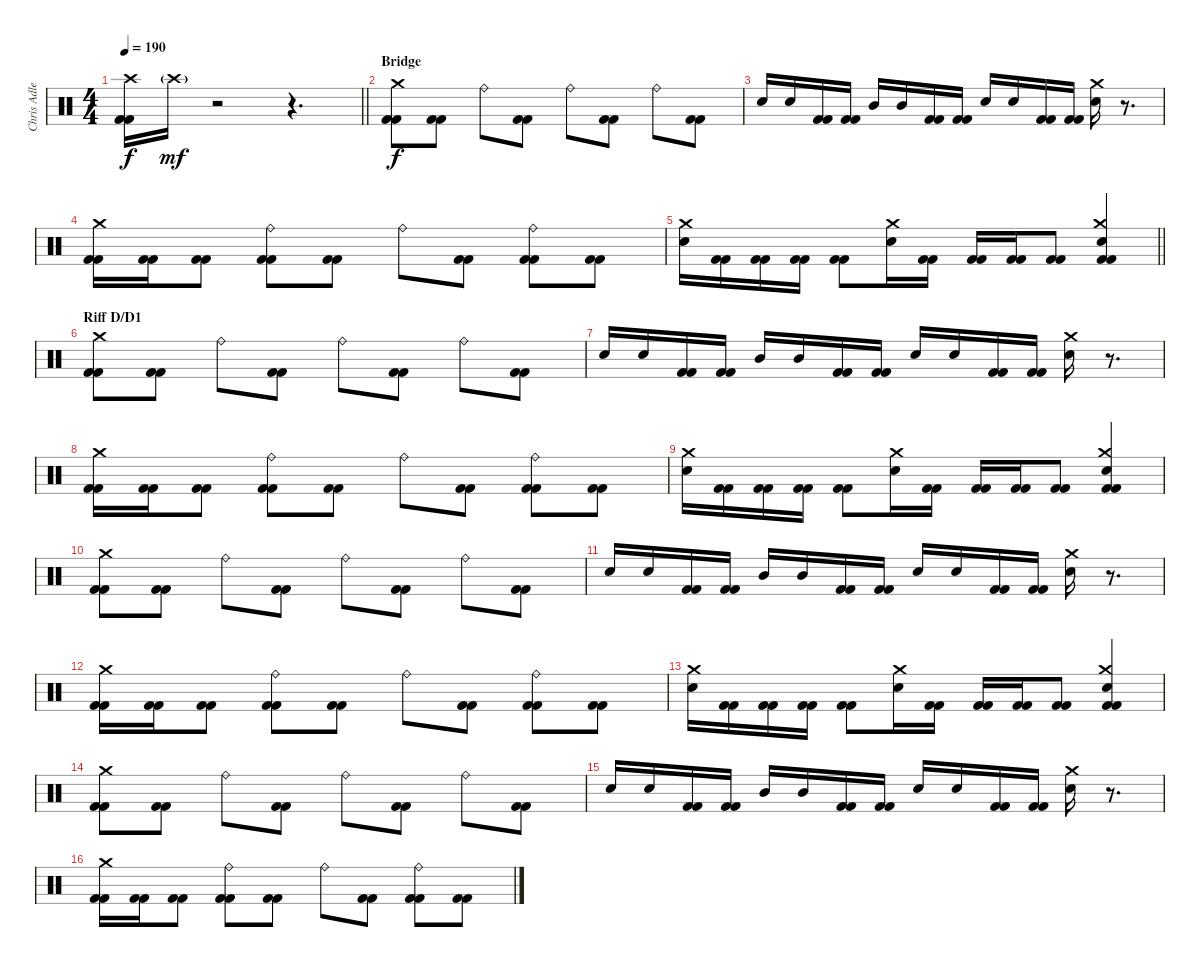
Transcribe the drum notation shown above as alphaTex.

\track ("Chris Adler" "Chris Adle") {instrument percussion}
\staff {score}
\articulation defaults
\ts (4 4)
\tempo 190
\clef neutral
\barLineRight lightlight
\ks c
("Kick (hit) 2" "Kick (hit) 2" "Crash high (hit)").16{dy f} "Crash high (hit)"{g}.16{dy mf} r.2 r.4{d} |
\section ("" "Bridge")
("Crash medium (hit)" "Kick (hit) 2" "Kick (hit) 2").8{dy f} ("Kick (hit) 2" "Kick (hit) 2").8 "Ride (bell)".8 ("Kick (hit) 2" "Kick (hit) 2").8 "Ride (bell)".8 ("Kick (hit) 2" "Kick (hit) 2").8 "Ride (bell)".8 ("Kick (hit) 2" "Kick (hit) 2").8 |
"Snare (hit) 2".16 "Snare (hit) 2".16 ("Kick (hit) 2" "Kick (hit) 2").16 ("Kick (hit) 2" "Kick (hit) 2").16 "Mid Tom (hit)".16 "Mid Tom (hit)".16 ("Kick (hit) 2" "Kick (hit) 2").16 ("Kick (hit) 2" "Kick (hit) 2").16 "Snare (hit) 2".16 "Snare (hit) 2".16 ("Kick (hit) 2" "Kick (hit) 2").16 ("Kick (hit) 2" "Kick (hit) 2").16 ("Snare (hit) 2" "Crash medium (hit)").16 r.8{d} |
("Crash medium (hit)" "Kick (hit) 2" "Kick (hit) 2").16 ("Kick (hit) 2" "Kick (hit) 2").16 ("Kick (hit) 2" "Kick (hit) 2").8 ("Ride (bell)" "Kick (hit) 2" "Kick (hit) 2").8 ("Kick (hit) 2" "Kick (hit) 2").8 "Ride (bell)".8 ("Kick (hit) 2" "Kick (hit) 2").8 ("Ride (bell)" "Kick (hit) 2" "Kick (hit) 2").8 ("Kick (hit) 2" "Kick (hit) 2").8 |
\barLineRight lightlight
("Crash medium (hit)" "Snare (hit) 2").16 ("Kick (hit) 2" "Kick (hit) 2").16 ("Kick (hit) 2" "Kick (hit) 2").16 ("Kick (hit) 2" "Kick (hit) 2").16 ("Kick (hit) 2" "Kick (hit) 2").8 ("Crash medium (hit)" "Snare (hit) 2").16 ("Kick (hit) 2" "Kick (hit) 2").16 ("Kick (hit) 2" "Kick (hit) 2").16 ("Kick (hit) 2" "Kick (hit) 2").16 ("Kick (hit) 2" "Kick (hit) 2").8 ("Crash medium (hit)" "Snare (hit) 2" "Kick (hit) 2" "Kick (hit) 2").4 |
\section ("" "Riff D/D1")
("Crash medium (hit)" "Kick (hit) 2" "Kick (hit) 2").8 ("Kick (hit) 2" "Kick (hit) 2").8 "Ride (bell)".8 ("Kick (hit) 2" "Kick (hit) 2").8 "Ride (bell)".8 ("Kick (hit) 2" "Kick (hit) 2").8 "Ride (bell)".8 ("Kick (hit) 2" "Kick (hit) 2").8 |
"Snare (hit) 2".16 "Snare (hit) 2".16 ("Kick (hit) 2" "Kick (hit) 2").16 ("Kick (hit) 2" "Kick (hit) 2").16 "Mid Tom (hit)".16 "Mid Tom (hit)".16 ("Kick (hit) 2" "Kick (hit) 2").16 ("Kick (hit) 2" "Kick (hit) 2").16 "Snare (hit) 2".16 "Snare (hit) 2".16 ("Kick (hit) 2" "Kick (hit) 2").16 ("Kick (hit) 2" "Kick (hit) 2").16 ("Snare (hit) 2" "Crash medium (hit)").16 r.8{d} |
("Crash medium (hit)" "Kick (hit) 2" "Kick (hit) 2").16 ("Kick (hit) 2" "Kick (hit) 2").16 ("Kick (hit) 2" "Kick (hit) 2").8 ("Ride (bell)" "Kick (hit) 2" "Kick (hit) 2").8 ("Kick (hit) 2" "Kick (hit) 2").8 "Ride (bell)".8 ("Kick (hit) 2" "Kick (hit) 2").8 ("Ride (bell)" "Kick (hit) 2" "Kick (hit) 2").8 ("Kick (hit) 2" "Kick (hit) 2").8 |
("Crash medium (hit)" "Snare (hit) 2").16 ("Kick (hit) 2" "Kick (hit) 2").16 ("Kick (hit) 2" "Kick (hit) 2").16 ("Kick (hit) 2" "Kick (hit) 2").16 ("Kick (hit) 2" "Kick (hit) 2").8 ("Crash medium (hit)" "Snare (hit) 2").16 ("Kick (hit) 2" "Kick (hit) 2").16 ("Kick (hit) 2" "Kick (hit) 2").16 ("Kick (hit) 2" "Kick (hit) 2").16 ("Kick (hit) 2" "Kick (hit) 2").8 ("Crash medium (hit)" "Snare (hit) 2" "Kick (hit) 2" "Kick (hit) 2").4 |
("Crash medium (hit)" "Kick (hit) 2" "Kick (hit) 2").8 ("Kick (hit) 2" "Kick (hit) 2").8 "Ride (bell)".8 ("Kick (hit) 2" "Kick (hit) 2").8 "Ride (bell)".8 ("Kick (hit) 2" "Kick (hit) 2").8 "Ride (bell)".8 ("Kick (hit) 2" "Kick (hit) 2").8 |
"Snare (hit) 2".16 "Snare (hit) 2".16 ("Kick (hit) 2" "Kick (hit) 2").16 ("Kick (hit) 2" "Kick (hit) 2").16 "Mid Tom (hit)".16 "Mid Tom (hit)".16 ("Kick (hit) 2" "Kick (hit) 2").16 ("Kick (hit) 2" "Kick (hit) 2").16 "Snare (hit) 2".16 "Snare (hit) 2".16 ("Kick (hit) 2" "Kick (hit) 2").16 ("Kick (hit) 2" "Kick (hit) 2").16 ("Snare (hit) 2" "Crash medium (hit)").16 r.8{d} |
("Crash medium (hit)" "Kick (hit) 2" "Kick (hit) 2").16 ("Kick (hit) 2" "Kick (hit) 2").16 ("Kick (hit) 2" "Kick (hit) 2").8 ("Ride (bell)" "Kick (hit) 2" "Kick (hit) 2").8 ("Kick (hit) 2" "Kick (hit) 2").8 "Ride (bell)".8 ("Kick (hit) 2" "Kick (hit) 2").8 ("Ride (bell)" "Kick (hit) 2" "Kick (hit) 2").8 ("Kick (hit) 2" "Kick (hit) 2").8 |
("Crash medium (hit)" "Snare (hit) 2").16 ("Kick (hit) 2" "Kick (hit) 2").16 ("Kick (hit) 2" "Kick (hit) 2").16 ("Kick (hit) 2" "Kick (hit) 2").16 ("Kick (hit) 2" "Kick (hit) 2").8 ("Crash medium (hit)" "Snare (hit) 2").16 ("Kick (hit) 2" "Kick (hit) 2").16 ("Kick (hit) 2" "Kick (hit) 2").16 ("Kick (hit) 2" "Kick (hit) 2").16 ("Kick (hit) 2" "Kick (hit) 2").8 ("Crash medium (hit)" "Snare (hit) 2" "Kick (hit) 2" "Kick (hit) 2").4 |
("Crash medium (hit)" "Kick (hit) 2" "Kick (hit) 2").8 ("Kick (hit) 2" "Kick (hit) 2").8 "Ride (bell)".8 ("Kick (hit) 2" "Kick (hit) 2").8 "Ride (bell)".8 ("Kick (hit) 2" "Kick (hit) 2").8 "Ride (bell)".8 ("Kick (hit) 2" "Kick (hit) 2").8 |
"Snare (hit) 2".16 "Snare (hit) 2".16 ("Kick (hit) 2" "Kick (hit) 2").16 ("Kick (hit) 2" "Kick (hit) 2").16 "Mid Tom (hit)".16 "Mid Tom (hit)".16 ("Kick (hit) 2" "Kick (hit) 2").16 ("Kick (hit) 2" "Kick (hit) 2").16 "Snare (hit) 2".16 "Snare (hit) 2".16 ("Kick (hit) 2" "Kick (hit) 2").16 ("Kick (hit) 2" "Kick (hit) 2").16 ("Snare (hit) 2" "Crash medium (hit)").16 r.8{d} |
("Crash medium (hit)" "Kick (hit) 2" "Kick (hit) 2").16 ("Kick (hit) 2" "Kick (hit) 2").16 ("Kick (hit) 2" "Kick (hit) 2").8 ("Ride (bell)" "Kick (hit) 2" "Kick (hit) 2").8 ("Kick (hit) 2" "Kick (hit) 2").8 "Ride (bell)".8 ("Kick (hit) 2" "Kick (hit) 2").8 ("Ride (bell)" "Kick (hit) 2" "Kick (hit) 2").8 ("Kick (hit) 2" "Kick (hit) 2").8
